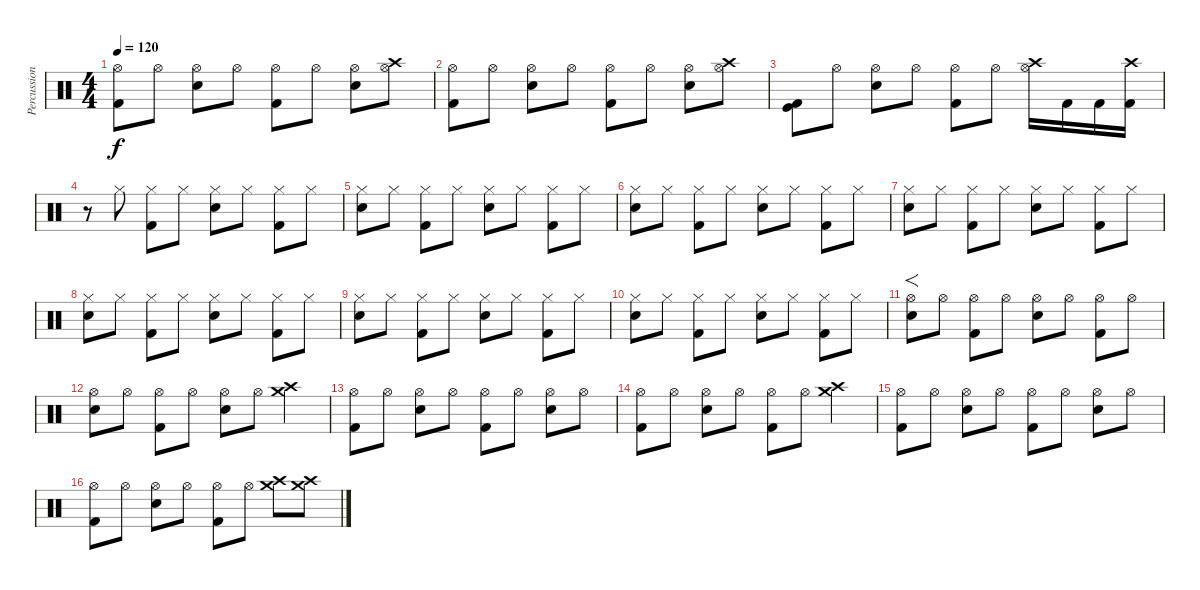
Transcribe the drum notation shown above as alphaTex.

\track ("Percussion" "Percussion") {instrument percussion}
\staff {score}
\articulation defaults
\ts (4 4)
\tempo 120
\clef neutral
\ks c
("Hi-Hat (open)" "Kick (hit) 2").8{dy f} "Hi-Hat (open)".8 ("Hi-Hat (open)" "Electric Snare (hit)").8 "Hi-Hat (open)".8 ("Hi-Hat (open)" "Kick (hit) 2").8 "Hi-Hat (open)".8 ("Hi-Hat (open)" "Electric Snare (hit)").8 ("Hi-Hat (open)" "Crash high (hit)").8 |
("Hi-Hat (open)" "Kick (hit) 2").8 "Hi-Hat (open)".8 ("Hi-Hat (open)" "Electric Snare (hit)").8 "Hi-Hat (open)".8 ("Hi-Hat (open)" "Kick (hit) 2").8 "Hi-Hat (open)".8 ("Hi-Hat (open)" "Electric Snare (hit)").8 ("Hi-Hat (open)" "Crash high (hit)").8 |
("Kick (hit)" "Kick (hit) 2").8 "Hi-Hat (open)".8 ("Hi-Hat (open)" "Electric Snare (hit)").8 "Hi-Hat (open)".8 ("Hi-Hat (open)" "Kick (hit) 2").8 "Hi-Hat (open)".8 ("Hi-Hat (open)" "Crash high (hit)").16 "Kick (hit) 2".16 "Kick (hit) 2".16 ("Kick (hit) 2" "Crash high (hit)").16 |
r.8 "Hi-Hat (closed)".8 ("Hi-Hat (closed)" "Kick (hit) 2").8 "Hi-Hat (closed)".8 ("Hi-Hat (closed)" "Electric Snare (hit)").8 "Hi-Hat (closed)".8 ("Hi-Hat (closed)" "Kick (hit) 2").8 "Hi-Hat (closed)".8 |
("Hi-Hat (closed)" "Electric Snare (hit)").8 "Hi-Hat (closed)".8 ("Hi-Hat (closed)" "Kick (hit) 2").8 "Hi-Hat (closed)".8 ("Hi-Hat (closed)" "Electric Snare (hit)").8 "Hi-Hat (closed)".8 ("Hi-Hat (closed)" "Kick (hit) 2").8 "Hi-Hat (closed)".8 |
("Hi-Hat (closed)" "Electric Snare (hit)").8 "Hi-Hat (closed)".8 ("Hi-Hat (closed)" "Kick (hit) 2").8 "Hi-Hat (closed)".8 ("Hi-Hat (closed)" "Electric Snare (hit)").8 "Hi-Hat (closed)".8 ("Hi-Hat (closed)" "Kick (hit) 2").8 "Hi-Hat (closed)".8 |
("Hi-Hat (closed)" "Electric Snare (hit)").8 "Hi-Hat (closed)".8 ("Hi-Hat (closed)" "Kick (hit) 2").8 "Hi-Hat (closed)".8 ("Hi-Hat (closed)" "Electric Snare (hit)").8 "Hi-Hat (closed)".8 ("Hi-Hat (closed)" "Kick (hit) 2").8 "Hi-Hat (closed)".8 |
("Hi-Hat (closed)" "Electric Snare (hit)").8 "Hi-Hat (closed)".8 ("Hi-Hat (closed)" "Kick (hit) 2").8 "Hi-Hat (closed)".8 ("Hi-Hat (closed)" "Electric Snare (hit)").8 "Hi-Hat (closed)".8 ("Hi-Hat (closed)" "Kick (hit) 2").8 "Hi-Hat (closed)".8 |
("Hi-Hat (closed)" "Electric Snare (hit)").8 "Hi-Hat (closed)".8 ("Hi-Hat (closed)" "Kick (hit) 2").8 "Hi-Hat (closed)".8 ("Hi-Hat (closed)" "Electric Snare (hit)").8 "Hi-Hat (closed)".8 ("Hi-Hat (closed)" "Kick (hit) 2").8 "Hi-Hat (closed)".8 |
("Hi-Hat (closed)" "Electric Snare (hit)").8 "Hi-Hat (closed)".8 ("Hi-Hat (closed)" "Kick (hit) 2").8 "Hi-Hat (closed)".8 ("Hi-Hat (closed)" "Electric Snare (hit)").8 "Hi-Hat (closed)".8 ("Hi-Hat (closed)" "Kick (hit) 2").8 "Hi-Hat (closed)".8 |
("Hi-Hat (open)" "Electric Snare (hit)").8{f} "Hi-Hat (open)".8 ("Hi-Hat (open)" "Kick (hit) 2").8 "Hi-Hat (open)".8 ("Hi-Hat (open)" "Electric Snare (hit)").8 "Hi-Hat (open)".8 ("Hi-Hat (open)" "Kick (hit) 2").8 "Hi-Hat (open)".8 |
("Hi-Hat (open)" "Electric Snare (hit)").8 "Hi-Hat (open)".8 ("Hi-Hat (open)" "Kick (hit) 2").8 "Hi-Hat (open)".8 ("Hi-Hat (open)" "Electric Snare (hit)").8 "Hi-Hat (open)".8 ("Crash high (hit)" "Crash medium (hit)").4 |
("Hi-Hat (open)" "Kick (hit) 2").8 "Hi-Hat (open)".8 ("Hi-Hat (open)" "Electric Snare (hit)").8 "Hi-Hat (open)".8 ("Hi-Hat (open)" "Kick (hit) 2").8 "Hi-Hat (open)".8 ("Hi-Hat (open)" "Electric Snare (hit)").8 "Hi-Hat (open)".8 |
("Hi-Hat (open)" "Kick (hit) 2").8 "Hi-Hat (open)".8 ("Hi-Hat (open)" "Electric Snare (hit)").8 "Hi-Hat (open)".8 ("Hi-Hat (open)" "Kick (hit) 2").8 "Hi-Hat (open)".8 ("Crash high (hit)" "Crash medium (hit)").4 |
("Hi-Hat (open)" "Kick (hit) 2").8 "Hi-Hat (open)".8 ("Hi-Hat (open)" "Electric Snare (hit)").8 "Hi-Hat (open)".8 ("Hi-Hat (open)" "Kick (hit) 2").8 "Hi-Hat (open)".8 ("Hi-Hat (open)" "Electric Snare (hit)").8 "Hi-Hat (open)".8 |
("Hi-Hat (open)" "Kick (hit) 2").8 "Hi-Hat (open)".8 ("Hi-Hat (open)" "Electric Snare (hit)").8 "Hi-Hat (open)".8 ("Hi-Hat (open)" "Kick (hit) 2").8 "Hi-Hat (open)".8 ("Crash high (hit)" "Crash medium (hit)").8 ("Crash high (hit)" "Crash medium (hit)").8
